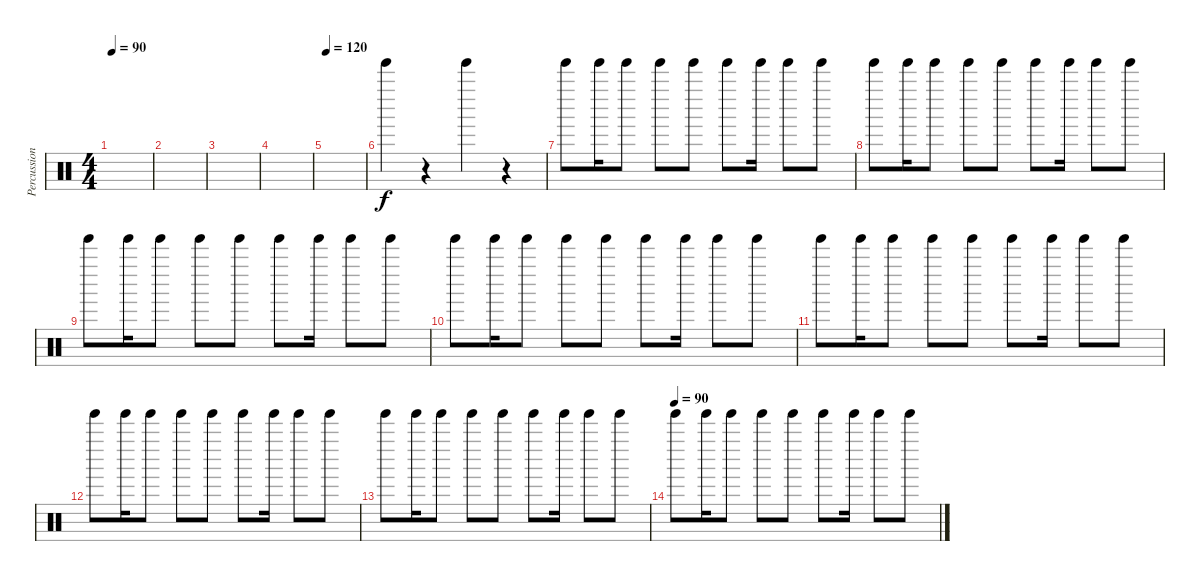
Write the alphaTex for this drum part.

\track ("Percussion" "Percussion") {instrument percussion}
\staff {score}
\articulation defaults
\ts (4 4)
\tempo 90
\clef neutral
\ks c
|
|
|
|
\tempo 120
|
"Tinkle Bell (hit)".4 r.4 "Tinkle Bell (hit)".4 r.4 |
"Tinkle Bell (hit)".8 "Tinkle Bell (hit)".16 "Tinkle Bell (hit)".8 "Tinkle Bell (hit)".8 "Tinkle Bell (hit)".8 "Tinkle Bell (hit)".8 "Tinkle Bell (hit)".16 "Tinkle Bell (hit)".8 "Tinkle Bell (hit)".8 |
"Tinkle Bell (hit)".8 "Tinkle Bell (hit)".16 "Tinkle Bell (hit)".8 "Tinkle Bell (hit)".8 "Tinkle Bell (hit)".8 "Tinkle Bell (hit)".8 "Tinkle Bell (hit)".16 "Tinkle Bell (hit)".8 "Tinkle Bell (hit)".8 |
"Tinkle Bell (hit)".8 "Tinkle Bell (hit)".16 "Tinkle Bell (hit)".8 "Tinkle Bell (hit)".8 "Tinkle Bell (hit)".8 "Tinkle Bell (hit)".8 "Tinkle Bell (hit)".16 "Tinkle Bell (hit)".8 "Tinkle Bell (hit)".8 |
"Tinkle Bell (hit)".8 "Tinkle Bell (hit)".16 "Tinkle Bell (hit)".8 "Tinkle Bell (hit)".8 "Tinkle Bell (hit)".8 "Tinkle Bell (hit)".8 "Tinkle Bell (hit)".16 "Tinkle Bell (hit)".8 "Tinkle Bell (hit)".8 |
"Tinkle Bell (hit)".8 "Tinkle Bell (hit)".16 "Tinkle Bell (hit)".8 "Tinkle Bell (hit)".8 "Tinkle Bell (hit)".8 "Tinkle Bell (hit)".8 "Tinkle Bell (hit)".16 "Tinkle Bell (hit)".8 "Tinkle Bell (hit)".8 |
"Tinkle Bell (hit)".8 "Tinkle Bell (hit)".16 "Tinkle Bell (hit)".8 "Tinkle Bell (hit)".8 "Tinkle Bell (hit)".8 "Tinkle Bell (hit)".8 "Tinkle Bell (hit)".16 "Tinkle Bell (hit)".8 "Tinkle Bell (hit)".8 |
"Tinkle Bell (hit)".8 "Tinkle Bell (hit)".16 "Tinkle Bell (hit)".8 "Tinkle Bell (hit)".8 "Tinkle Bell (hit)".8 "Tinkle Bell (hit)".8 "Tinkle Bell (hit)".16 "Tinkle Bell (hit)".8 "Tinkle Bell (hit)".8 |
\tempo (90)
"Tinkle Bell (hit)".8 "Tinkle Bell (hit)".16 "Tinkle Bell (hit)".8 "Tinkle Bell (hit)".8 "Tinkle Bell (hit)".8 "Tinkle Bell (hit)".8 "Tinkle Bell (hit)".16 "Tinkle Bell (hit)".8 "Tinkle Bell (hit)".8
